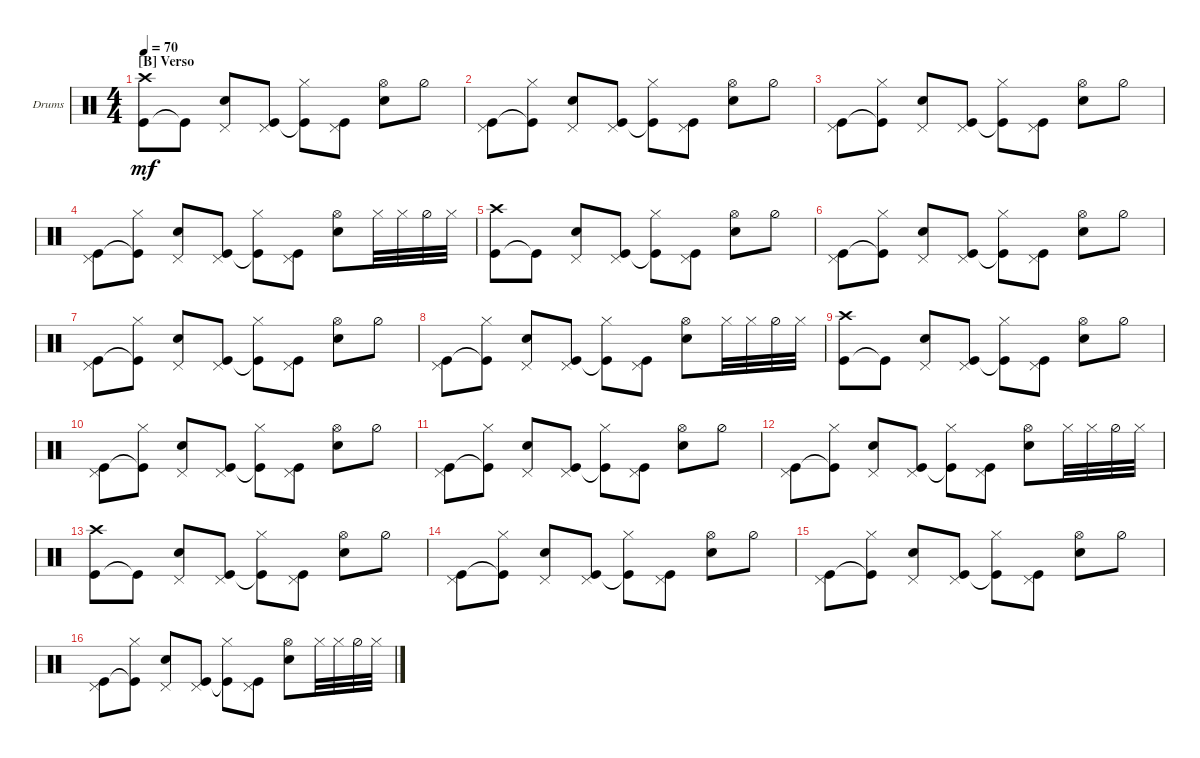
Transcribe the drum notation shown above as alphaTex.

\defaultSystemsLayout 4
\bracketExtendMode groupsimilarinstruments
\firstSystemTrackNameOrientation horizontal
\otherSystemsTrackNameOrientation horizontal
\track ("Drum" "Drums") {multiBarRest instrument percussion}
\staff {score}
\articulation defaults
\ts (4 4)
\section ("B" "Verso")
\tempo 70
\clef neutral
\ks c
("Kick (hit)" "Crash high (hit)").8{dy mf} "Kick (hit)"{t}.8 ("Snare (hit) 2" "Pedal Hi-Hat (hit)").8 ("Kick (hit)" "Pedal Hi-Hat (hit)").8 ("Kick (hit)"{t} "Hi-Hat (closed)").8 ("Kick (hit)" "Pedal Hi-Hat (hit)").8 ("Snare (hit) 2" "Hi-Hat (open)").8 "Hi-Hat (half)".8 |
("Kick (hit)" "Pedal Hi-Hat (hit)").8 ("Kick (hit)"{t} "Hi-Hat (closed)").8 ("Snare (hit) 2" "Pedal Hi-Hat (hit)").8 ("Kick (hit)" "Pedal Hi-Hat (hit)").8 ("Kick (hit)"{t} "Hi-Hat (closed)").8 ("Kick (hit)" "Pedal Hi-Hat (hit)").8 ("Snare (hit) 2" "Hi-Hat (open)").8 "Hi-Hat (half)".8 |
("Kick (hit)" "Pedal Hi-Hat (hit)").8 ("Kick (hit)"{t} "Hi-Hat (closed)").8 ("Snare (hit) 2" "Pedal Hi-Hat (hit)").8 ("Kick (hit)" "Pedal Hi-Hat (hit)").8 ("Kick (hit)"{t} "Hi-Hat (closed)").8 ("Kick (hit)" "Pedal Hi-Hat (hit)").8 ("Snare (hit) 2" "Hi-Hat (open)").8 "Hi-Hat (half)".8 |
("Kick (hit)" "Pedal Hi-Hat (hit)").8 ("Kick (hit)"{t} "Hi-Hat (closed)").8 ("Snare (hit) 2" "Pedal Hi-Hat (hit)").8 ("Kick (hit)" "Pedal Hi-Hat (hit)").8 ("Kick (hit)"{t} "Hi-Hat (closed)").8 ("Kick (hit)" "Pedal Hi-Hat (hit)").8 ("Snare (hit) 2" "Hi-Hat (open)").8 "Hi-Hat (closed)".32 "Hi-Hat (closed)".32 "Hi-Hat (half)".32 "Hi-Hat (closed)".32 |
("Kick (hit)" "Crash high (hit)").8 "Kick (hit)"{t}.8 ("Snare (hit) 2" "Pedal Hi-Hat (hit)").8 ("Kick (hit)" "Pedal Hi-Hat (hit)").8 ("Kick (hit)"{t} "Hi-Hat (closed)").8 ("Kick (hit)" "Pedal Hi-Hat (hit)").8 ("Snare (hit) 2" "Hi-Hat (open)").8 "Hi-Hat (half)".8 |
("Kick (hit)" "Pedal Hi-Hat (hit)").8 ("Kick (hit)"{t} "Hi-Hat (closed)").8 ("Snare (hit) 2" "Pedal Hi-Hat (hit)").8 ("Kick (hit)" "Pedal Hi-Hat (hit)").8 ("Kick (hit)"{t} "Hi-Hat (closed)").8 ("Kick (hit)" "Pedal Hi-Hat (hit)").8 ("Snare (hit) 2" "Hi-Hat (open)").8 "Hi-Hat (half)".8 |
("Kick (hit)" "Pedal Hi-Hat (hit)").8 ("Kick (hit)"{t} "Hi-Hat (closed)").8 ("Snare (hit) 2" "Pedal Hi-Hat (hit)").8 ("Kick (hit)" "Pedal Hi-Hat (hit)").8 ("Kick (hit)"{t} "Hi-Hat (closed)").8 ("Kick (hit)" "Pedal Hi-Hat (hit)").8 ("Snare (hit) 2" "Hi-Hat (open)").8 "Hi-Hat (half)".8 |
("Kick (hit)" "Pedal Hi-Hat (hit)").8 ("Kick (hit)"{t} "Hi-Hat (closed)").8 ("Snare (hit) 2" "Pedal Hi-Hat (hit)").8 ("Kick (hit)" "Pedal Hi-Hat (hit)").8 ("Kick (hit)"{t} "Hi-Hat (closed)").8 ("Kick (hit)" "Pedal Hi-Hat (hit)").8 ("Snare (hit) 2" "Hi-Hat (open)").8 "Hi-Hat (closed)".32 "Hi-Hat (closed)".32 "Hi-Hat (half)".32 "Hi-Hat (closed)".32 |
("Kick (hit)" "Crash high (hit)").8 "Kick (hit)"{t}.8 ("Snare (hit) 2" "Pedal Hi-Hat (hit)").8 ("Kick (hit)" "Pedal Hi-Hat (hit)").8 ("Kick (hit)"{t} "Hi-Hat (closed)").8 ("Kick (hit)" "Pedal Hi-Hat (hit)").8 ("Snare (hit) 2" "Hi-Hat (open)").8 "Hi-Hat (half)".8 |
("Kick (hit)" "Pedal Hi-Hat (hit)").8 ("Kick (hit)"{t} "Hi-Hat (closed)").8 ("Snare (hit) 2" "Pedal Hi-Hat (hit)").8 ("Kick (hit)" "Pedal Hi-Hat (hit)").8 ("Kick (hit)"{t} "Hi-Hat (closed)").8 ("Kick (hit)" "Pedal Hi-Hat (hit)").8 ("Snare (hit) 2" "Hi-Hat (open)").8 "Hi-Hat (half)".8 |
("Kick (hit)" "Pedal Hi-Hat (hit)").8 ("Kick (hit)"{t} "Hi-Hat (closed)").8 ("Snare (hit) 2" "Pedal Hi-Hat (hit)").8 ("Kick (hit)" "Pedal Hi-Hat (hit)").8 ("Kick (hit)"{t} "Hi-Hat (closed)").8 ("Kick (hit)" "Pedal Hi-Hat (hit)").8 ("Snare (hit) 2" "Hi-Hat (open)").8 "Hi-Hat (half)".8 |
("Kick (hit)" "Pedal Hi-Hat (hit)").8 ("Kick (hit)"{t} "Hi-Hat (closed)").8 ("Snare (hit) 2" "Pedal Hi-Hat (hit)").8 ("Kick (hit)" "Pedal Hi-Hat (hit)").8 ("Kick (hit)"{t} "Hi-Hat (closed)").8 ("Kick (hit)" "Pedal Hi-Hat (hit)").8 ("Snare (hit) 2" "Hi-Hat (open)").8 "Hi-Hat (closed)".32 "Hi-Hat (closed)".32 "Hi-Hat (half)".32 "Hi-Hat (closed)".32 |
("Kick (hit)" "Crash high (hit)").8 "Kick (hit)"{t}.8 ("Snare (hit) 2" "Pedal Hi-Hat (hit)").8 ("Kick (hit)" "Pedal Hi-Hat (hit)").8 ("Kick (hit)"{t} "Hi-Hat (closed)").8 ("Kick (hit)" "Pedal Hi-Hat (hit)").8 ("Snare (hit) 2" "Hi-Hat (open)").8 "Hi-Hat (half)".8 |
("Kick (hit)" "Pedal Hi-Hat (hit)").8 ("Kick (hit)"{t} "Hi-Hat (closed)").8 ("Snare (hit) 2" "Pedal Hi-Hat (hit)").8 ("Kick (hit)" "Pedal Hi-Hat (hit)").8 ("Kick (hit)"{t} "Hi-Hat (closed)").8 ("Kick (hit)" "Pedal Hi-Hat (hit)").8 ("Snare (hit) 2" "Hi-Hat (open)").8 "Hi-Hat (half)".8 |
("Kick (hit)" "Pedal Hi-Hat (hit)").8 ("Kick (hit)"{t} "Hi-Hat (closed)").8 ("Snare (hit) 2" "Pedal Hi-Hat (hit)").8 ("Kick (hit)" "Pedal Hi-Hat (hit)").8 ("Kick (hit)"{t} "Hi-Hat (closed)").8 ("Kick (hit)" "Pedal Hi-Hat (hit)").8 ("Snare (hit) 2" "Hi-Hat (open)").8 "Hi-Hat (half)".8 |
("Kick (hit)" "Pedal Hi-Hat (hit)").8 ("Kick (hit)"{t} "Hi-Hat (closed)").8 ("Snare (hit) 2" "Pedal Hi-Hat (hit)").8 ("Kick (hit)" "Pedal Hi-Hat (hit)").8 ("Kick (hit)"{t} "Hi-Hat (closed)").8 ("Kick (hit)" "Pedal Hi-Hat (hit)").8 ("Snare (hit) 2" "Hi-Hat (open)").8 "Hi-Hat (closed)".32 "Hi-Hat (closed)".32 "Hi-Hat (half)".32 "Hi-Hat (closed)".32
